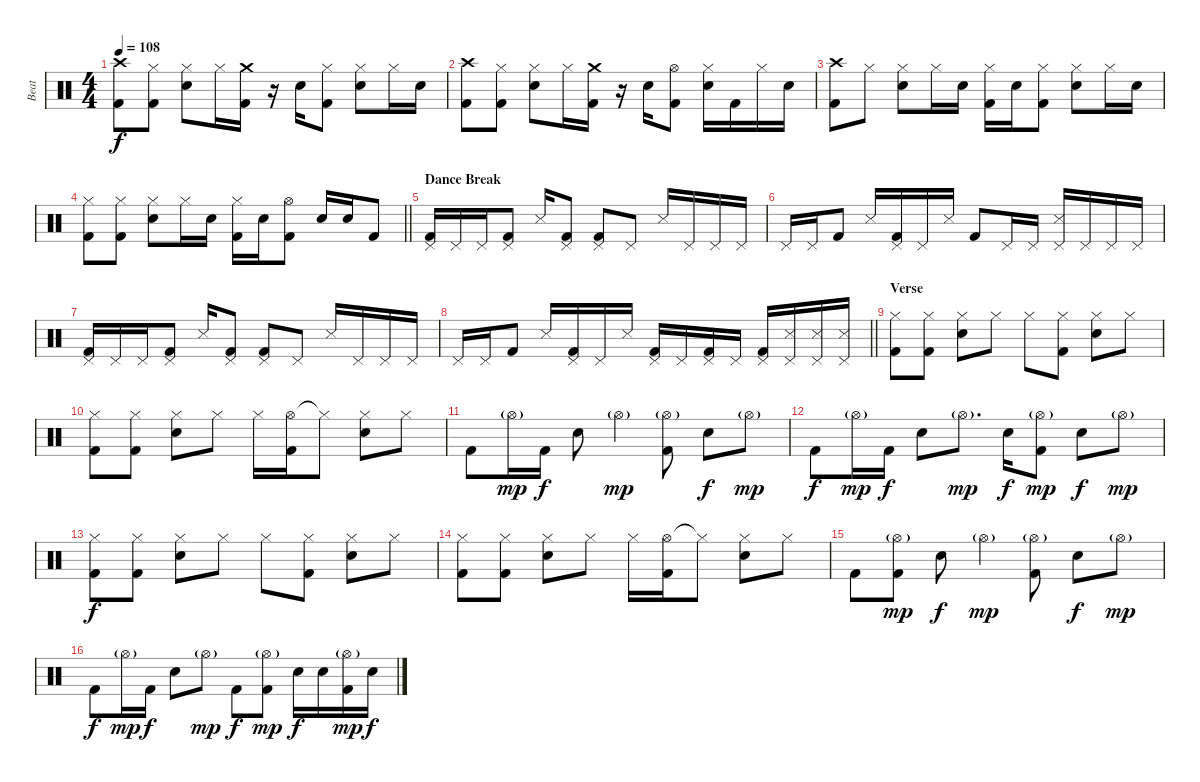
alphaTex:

\track ("Beat" "Beat") {instrument percussion}
\staff {score}
\articulation defaults
\ts (4 4)
\tempo 108
\clef neutral
\ks c
("Crash high (hit)" "Kick (hit) 2").8{dy f} ("Hi-Hat (closed)" "Kick (hit) 2").8 ("Hi-Hat (closed)" "Snare (hit) 2").8 "Hi-Hat (closed)".16 ("Crash medium (hit)" "Kick (hit) 2").16 r.16 "Snare (hit) 2".16 ("Hi-Hat (closed)" "Kick (hit) 2").8 ("Hi-Hat (closed)" "Snare (hit) 2").8 "Hi-Hat (closed)".16 "Snare (hit) 2".16 |
("Crash high (hit)" "Kick (hit) 2").8 ("Hi-Hat (closed)" "Kick (hit) 2").8 ("Hi-Hat (closed)" "Snare (hit) 2").8 "Hi-Hat (closed)".16 ("Crash medium (hit)" "Kick (hit) 2").16 r.16 "Snare (hit) 2".16 ("Hi-Hat (open)" "Kick (hit) 2").8 ("Hi-Hat (closed)" "Snare (hit) 2").16 "Kick (hit) 2".16 "Hi-Hat (closed)".16 "Snare (hit) 2".16 |
("Crash high (hit)" "Kick (hit) 2").8 "Hi-Hat (closed)".8 ("Hi-Hat (closed)" "Snare (hit) 2").8 "Hi-Hat (closed)".16 "Snare (hit) 2".16 ("Hi-Hat (closed)" "Kick (hit) 2").16 "Snare (hit) 2".16 ("Hi-Hat (closed)" "Kick (hit) 2").8 ("Hi-Hat (closed)" "Snare (hit) 2").8 "Hi-Hat (closed)".16 "Snare (hit) 2".16 |
\barLineRight lightlight
("Hi-Hat (closed)" "Kick (hit) 2").8 ("Hi-Hat (closed)" "Kick (hit) 2").8 ("Hi-Hat (closed)" "Snare (hit) 2").8 "Hi-Hat (closed)".16 "Snare (hit) 2".16 ("Hi-Hat (closed)" "Kick (hit) 2").16 "Snare (hit) 2".16 ("Hi-Hat (open)" "Kick (hit) 2").8 "Snare (hit) 2".16 "Snare (hit) 2".16 "Kick (hit) 2".8 |
\section ("" "Dance Break")
("Pedal Hi-Hat (hit)" "Kick (hit) 2").16 "Pedal Hi-Hat (hit)".16 "Pedal Hi-Hat (hit)".16 ("Pedal Hi-Hat (hit)" "Kick (hit) 2").8 "Snare (side stick) 3".16 ("Pedal Hi-Hat (hit)" "Kick (hit) 2").8 ("Pedal Hi-Hat (hit)" "Kick (hit) 2").8 "Pedal Hi-Hat (hit)".8 "Snare (side stick) 3".16 "Pedal Hi-Hat (hit)".16 "Pedal Hi-Hat (hit)".16 "Pedal Hi-Hat (hit)".16 |
"Pedal Hi-Hat (hit)".16 "Pedal Hi-Hat (hit)".16 "Kick (hit) 2".8 "Snare (side stick) 3".16 ("Pedal Hi-Hat (hit)" "Kick (hit) 2").16 "Pedal Hi-Hat (hit)".16 "Snare (side stick) 3".16 "Kick (hit) 2".8 "Pedal Hi-Hat (hit)".16 "Pedal Hi-Hat (hit)".16 ("Pedal Hi-Hat (hit)" "Snare (side stick) 3").16 "Pedal Hi-Hat (hit)".16 "Pedal Hi-Hat (hit)".16 "Pedal Hi-Hat (hit)".16 |
("Pedal Hi-Hat (hit)" "Kick (hit) 2").16 "Pedal Hi-Hat (hit)".16 "Pedal Hi-Hat (hit)".16 ("Pedal Hi-Hat (hit)" "Kick (hit) 2").8 "Snare (side stick) 3".16 ("Pedal Hi-Hat (hit)" "Kick (hit) 2").8 ("Pedal Hi-Hat (hit)" "Kick (hit) 2").8 "Pedal Hi-Hat (hit)".8 "Snare (side stick) 3".16 "Pedal Hi-Hat (hit)".16 "Pedal Hi-Hat (hit)".16 "Pedal Hi-Hat (hit)".16 |
\barLineRight lightlight "Pedal Hi-Hat (hit)".16 "Pedal Hi-Hat (hit)".16 "Kick (hit) 2".8 "Snare (side stick) 3".16
("Pedal Hi-Hat (hit)" "Kick (hit) 2").16 "Pedal Hi-Hat (hit)".16 "Snare (side stick) 3".16 ("Pedal Hi-Hat (hit)" "Kick (hit) 2").16 "Pedal Hi-Hat (hit)".16 ("Pedal Hi-Hat (hit)" "Kick (hit) 2").16 "Pedal Hi-Hat (hit)".16 ("Pedal Hi-Hat (hit)" "Kick (hit) 2").16 ("Pedal Hi-Hat (hit)" "Snare (side stick) 3").16 ("Pedal Hi-Hat (hit)" "Snare (side stick) 3").16 ("Pedal Hi-Hat (hit)" "Snare (side stick) 3").16 |
\section ("" "Verse")
("Hi-Hat (closed)" "Kick (hit) 2").8 ("Hi-Hat (closed)" "Kick (hit) 2").8 ("Hi-Hat (closed)" "Snare (hit) 2").8 "Hi-Hat (closed)".8 "Hi-Hat (closed)".8 ("Hi-Hat (closed)" "Kick (hit) 2").8 ("Hi-Hat (closed)" "Snare (hit) 2").8 "Hi-Hat (closed)".8 |
("Hi-Hat (closed)" "Kick (hit) 2").8 ("Hi-Hat (closed)" "Kick (hit) 2").8 ("Hi-Hat (closed)" "Snare (hit) 2").8 "Hi-Hat (closed)".8 "Hi-Hat (closed)".16 ("Hi-Hat (open)" "Kick (hit) 2").16 "Hi-Hat (closed)"{t}.8 ("Hi-Hat (closed)" "Snare (hit) 2").8 "Hi-Hat (closed)".8 |
"Kick (hit) 2".8 "Hi-Hat (open)"{g}.16{dy mp} "Kick (hit) 2".16{dy f} "Snare (hit) 2".8 "Hi-Hat (open)"{g}.4{dy mp} ("Hi-Hat (open)"{g} "Kick (hit) 2").8 "Snare (hit) 2".8{dy f} "Hi-Hat (open)"{g}.8{dy mp} |
"Kick (hit) 2".8{dy f} "Hi-Hat (open)"{g}.16{dy mp} "Kick (hit) 2".16{dy f} "Snare (hit) 2".8 "Hi-Hat (open)"{g}.8{d dy mp} "Snare (hit) 2".16{dy f} ("Hi-Hat (open)"{g} "Kick (hit) 2").8{dy mp} "Snare (hit) 2".8{dy f} "Hi-Hat (open)"{g}.8{dy mp} |
("Hi-Hat (closed)" "Kick (hit) 2").8{dy f} ("Hi-Hat (closed)" "Kick (hit) 2").8 ("Hi-Hat (closed)" "Snare (hit) 2").8 "Hi-Hat (closed)".8 "Hi-Hat (closed)".8 ("Hi-Hat (closed)" "Kick (hit) 2").8 ("Hi-Hat (closed)" "Snare (hit) 2").8 "Hi-Hat (closed)".8 |
("Hi-Hat (closed)" "Kick (hit) 2").8 ("Hi-Hat (closed)" "Kick (hit) 2").8 ("Hi-Hat (closed)" "Snare (hit) 2").8 "Hi-Hat (closed)".8 "Hi-Hat (closed)".16 ("Hi-Hat (open)" "Kick (hit) 2").16 "Hi-Hat (closed)"{t}.8 ("Hi-Hat (closed)" "Snare (hit) 2").8 "Hi-Hat (closed)".8 |
"Kick (hit) 2".8 ("Hi-Hat (open)"{g} "Kick (hit) 2").8{dy mp} "Snare (hit) 2".8{dy f} "Hi-Hat (open)"{g}.4{dy mp} ("Hi-Hat (open)"{g} "Kick (hit) 2").8 "Snare (hit) 2".8{dy f} "Hi-Hat (open)"{g}.8{dy mp} |
"Kick (hit) 2".8{dy f} "Hi-Hat (open)"{g}.16{dy mp} "Kick (hit) 2".16{dy f} "Snare (hit) 2".8 "Hi-Hat (open)"{g}.8{dy mp} "Kick (hit) 2".8{dy f} ("Hi-Hat (open)"{g} "Kick (hit) 2").8{dy mp} "Snare (hit) 2".16{dy f} "Snare (hit) 2".16 ("Hi-Hat (open)"{g} "Kick (hit) 2").16{dy mp} "Snare (hit) 2".16{dy f}
